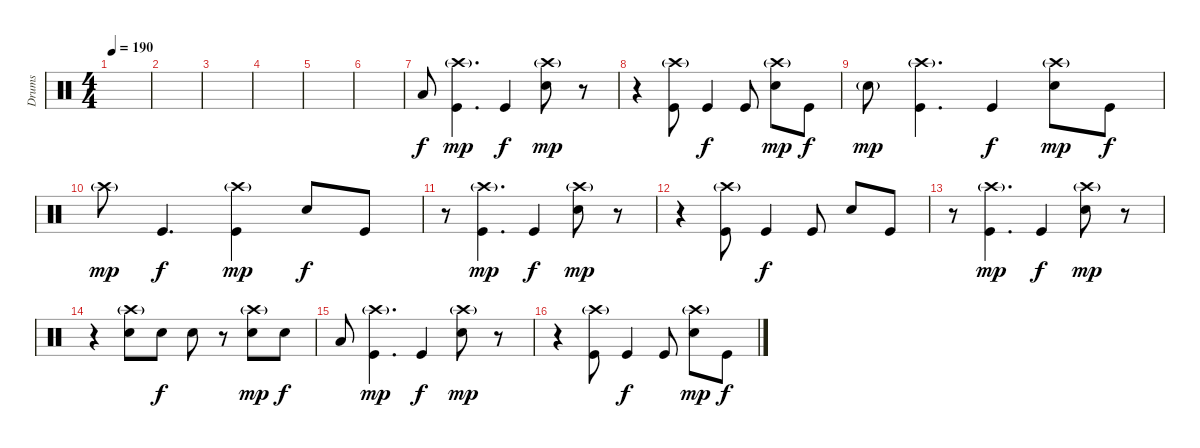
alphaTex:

\track ("Drums" "Drums") {instrument percussion}
\staff {score}
\articulation defaults
\ts (4 4)
\tempo 190
\clef neutral
\ks c
|
|
|
|
|
|
"Low Tom (hit)".8{dy f} ("Kick (hit)" "Crash high (hit)"{g}).4{d dy mp} "Kick (hit)".4{dy f} ("Electric Snare (hit)" "Crash high (hit)"{g}).8{dy mp} r.8 |
r.4 ("Kick (hit)" "Crash high (hit)"{g}).8 "Kick (hit)".4{dy f} "Kick (hit)".8 ("Electric Snare (hit)" "Crash high (hit)"{g}).8{dy mp} "Kick (hit)".8{dy f} |
"Electric Snare (hit)"{g}.8{dy mp} ("Kick (hit)" "Crash high (hit)"{g}).4{d} "Kick (hit)".4{dy f} ("Electric Snare (hit)" "Crash high (hit)"{g}).8{dy mp} "Kick (hit)".8{dy f} |
"Crash high (hit)"{g}.8{dy mp} "Kick (hit)".4{d dy f} ("Kick (hit)" "Crash high (hit)"{g}).4{dy mp} "Electric Snare (hit)".8{dy f} "Kick (hit)".8 |
r.8 ("Kick (hit)" "Crash high (hit)"{g}).4{d dy mp} "Kick (hit)".4{dy f} ("Electric Snare (hit)" "Crash high (hit)"{g}).8{dy mp} r.8 |
r.4 ("Kick (hit)" "Crash high (hit)"{g}).8 "Kick (hit)".4{dy f} "Kick (hit)".8 "Electric Snare (hit)".8 "Kick (hit)".8 |
r.8 ("Kick (hit)" "Crash high (hit)"{g}).4{d dy mp} "Kick (hit)".4{dy f} ("Electric Snare (hit)" "Crash high (hit)"{g}).8{dy mp} r.8 |
r.4 ("Electric Snare (hit)" "Crash high (hit)"{g}).8 "Electric Snare (hit)".8{dy f} "Electric Snare (hit)".8 r.8 ("Electric Snare (hit)" "Crash high (hit)"{g}).8{dy mp} "Electric Snare (hit)".8{dy f} |
"Low Tom (hit)".8 ("Kick (hit)" "Crash high (hit)"{g}).4{d dy mp} "Kick (hit)".4{dy f} ("Electric Snare (hit)" "Crash high (hit)"{g}).8{dy mp} r.8 |
r.4 ("Kick (hit)" "Crash high (hit)"{g}).8 "Kick (hit)".4{dy f} "Kick (hit)".8 ("Electric Snare (hit)" "Crash high (hit)"{g}).8{dy mp} "Kick (hit)".8{dy f}
